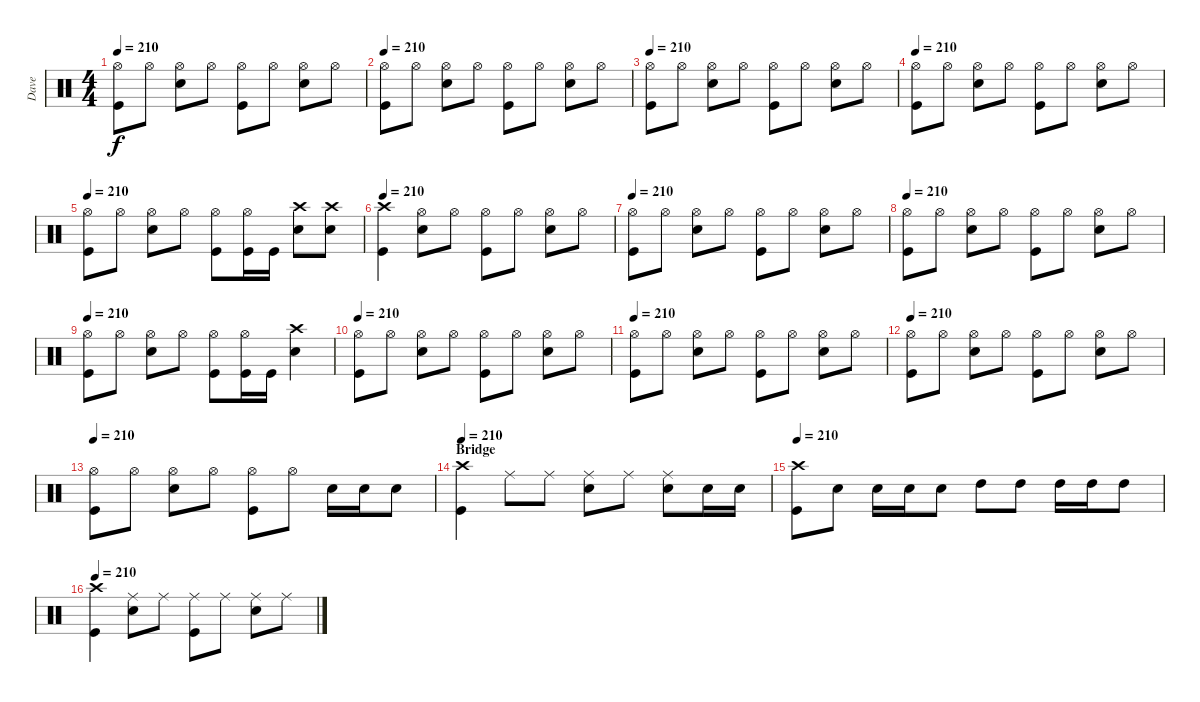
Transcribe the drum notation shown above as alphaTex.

\track ("Dave" "Dave") {instrument percussion}
\staff {score}
\articulation defaults
\ts (4 4)
\tempo 210
\clef neutral
\ks c
("Hi-Hat (open)" "Kick (hit)").8{dy f} "Hi-Hat (open)".8 ("Hi-Hat (open)" "Snare (hit) 2").8 "Hi-Hat (open)".8 ("Hi-Hat (open)" "Kick (hit)").8 "Hi-Hat (open)".8 ("Hi-Hat (open)" "Snare (hit) 2").8 "Hi-Hat (open)".8 |
\tempo 210
("Hi-Hat (open)" "Kick (hit)").8 "Hi-Hat (open)".8 ("Hi-Hat (open)" "Snare (hit) 2").8 "Hi-Hat (open)".8 ("Hi-Hat (open)" "Kick (hit)").8 "Hi-Hat (open)".8 ("Hi-Hat (open)" "Snare (hit) 2").8 "Hi-Hat (open)".8 |
\tempo 210
("Hi-Hat (open)" "Kick (hit)").8 "Hi-Hat (open)".8 ("Hi-Hat (open)" "Snare (hit) 2").8 "Hi-Hat (open)".8 ("Hi-Hat (open)" "Kick (hit)").8 "Hi-Hat (open)".8 ("Hi-Hat (open)" "Snare (hit) 2").8 "Hi-Hat (open)".8 |
\tempo 210
("Hi-Hat (open)" "Kick (hit)").8 "Hi-Hat (open)".8 ("Hi-Hat (open)" "Snare (hit) 2").8 "Hi-Hat (open)".8 ("Hi-Hat (open)" "Kick (hit)").8 "Hi-Hat (open)".8 ("Hi-Hat (open)" "Snare (hit) 2").8 "Hi-Hat (open)".8 |
\tempo 210
("Hi-Hat (open)" "Kick (hit)").8 "Hi-Hat (open)".8 ("Hi-Hat (open)" "Snare (hit) 2").8 "Hi-Hat (open)".8 ("Hi-Hat (open)" "Kick (hit)").8 ("Hi-Hat (open)" "Kick (hit)").16 "Kick (hit)".16 ("Crash high (hit)" "Snare (hit) 2").8 ("Crash high (hit)" "Snare (hit) 2").8 |
\tempo 210
("Crash high (hit)" "Kick (hit)").4 ("Hi-Hat (open)" "Snare (hit) 2").8 "Hi-Hat (open)".8 ("Hi-Hat (open)" "Kick (hit)").8 "Hi-Hat (open)".8 ("Hi-Hat (open)" "Snare (hit) 2").8 "Hi-Hat (open)".8 |
\tempo 210
("Hi-Hat (open)" "Kick (hit)").8 "Hi-Hat (open)".8 ("Hi-Hat (open)" "Snare (hit) 2").8 "Hi-Hat (open)".8 ("Hi-Hat (open)" "Kick (hit)").8 "Hi-Hat (open)".8 ("Hi-Hat (open)" "Snare (hit) 2").8 "Hi-Hat (open)".8 |
\tempo 210
("Hi-Hat (open)" "Kick (hit)").8 "Hi-Hat (open)".8 ("Hi-Hat (open)" "Snare (hit) 2").8 "Hi-Hat (open)".8 ("Hi-Hat (open)" "Kick (hit)").8 "Hi-Hat (open)".8 ("Hi-Hat (open)" "Snare (hit) 2").8 "Hi-Hat (open)".8 |
\tempo 210
("Hi-Hat (open)" "Kick (hit)").8 "Hi-Hat (open)".8 ("Hi-Hat (open)" "Snare (hit) 2").8 "Hi-Hat (open)".8 ("Hi-Hat (open)" "Kick (hit)").8 ("Hi-Hat (open)" "Kick (hit)").16 "Kick (hit)".16 ("Crash high (hit)" "Snare (hit) 2").4 |
\tempo 210
("Hi-Hat (open)" "Kick (hit)").8 "Hi-Hat (open)".8 ("Hi-Hat (open)" "Snare (hit) 2").8 "Hi-Hat (open)".8 ("Hi-Hat (open)" "Kick (hit)").8 "Hi-Hat (open)".8 ("Hi-Hat (open)" "Snare (hit) 2").8 "Hi-Hat (open)".8 |
\tempo 210
("Hi-Hat (open)" "Kick (hit)").8 "Hi-Hat (open)".8 ("Hi-Hat (open)" "Snare (hit) 2").8 "Hi-Hat (open)".8 ("Hi-Hat (open)" "Kick (hit)").8 "Hi-Hat (open)".8 ("Hi-Hat (open)" "Snare (hit) 2").8 "Hi-Hat (open)".8 |
\tempo 210
("Hi-Hat (open)" "Kick (hit)").8 "Hi-Hat (open)".8 ("Hi-Hat (open)" "Snare (hit) 2").8 "Hi-Hat (open)".8 ("Hi-Hat (open)" "Kick (hit)").8 "Hi-Hat (open)".8 ("Hi-Hat (open)" "Snare (hit) 2").8 "Hi-Hat (open)".8 |
\tempo 210
("Hi-Hat (open)" "Kick (hit)").8 "Hi-Hat (open)".8 ("Hi-Hat (open)" "Snare (hit) 2").8 "Hi-Hat (open)".8 ("Hi-Hat (open)" "Kick (hit)").8 "Hi-Hat (open)".8 "Snare (hit) 2".16 "Snare (hit) 2".16 "Snare (hit) 2".8 |
\section ("" "Bridge")
\tempo 210
("Crash high (hit)" "Kick (hit)").4 "Ride (middle)".8 "Ride (middle)".8 ("Ride (middle)" "Snare (hit) 2").8 "Ride (middle)".8 ("Ride (middle)" "Snare (hit) 2").8 "Snare (hit) 2".16 "Snare (hit) 2".16 |
\tempo 210
("Crash high (hit)" "Kick (hit)").8 "Snare (hit) 2".8 "Snare (hit) 2".16 "Snare (hit) 2".16 "Snare (hit) 2".8 "High Tom (hit)".8 "High Tom (hit)".8 "High Tom (hit)".16 "High Tom (hit)".16 "High Tom (hit)".8 |
\tempo 210
("Crash high (hit)" "Kick (hit)").4 ("Ride (middle)" "Snare (hit) 2").8 "Ride (middle)".8 ("Ride (middle)" "Kick (hit)").8 "Ride (middle)".8 ("Ride (middle)" "Snare (hit) 2").8 "Ride (middle)".8
